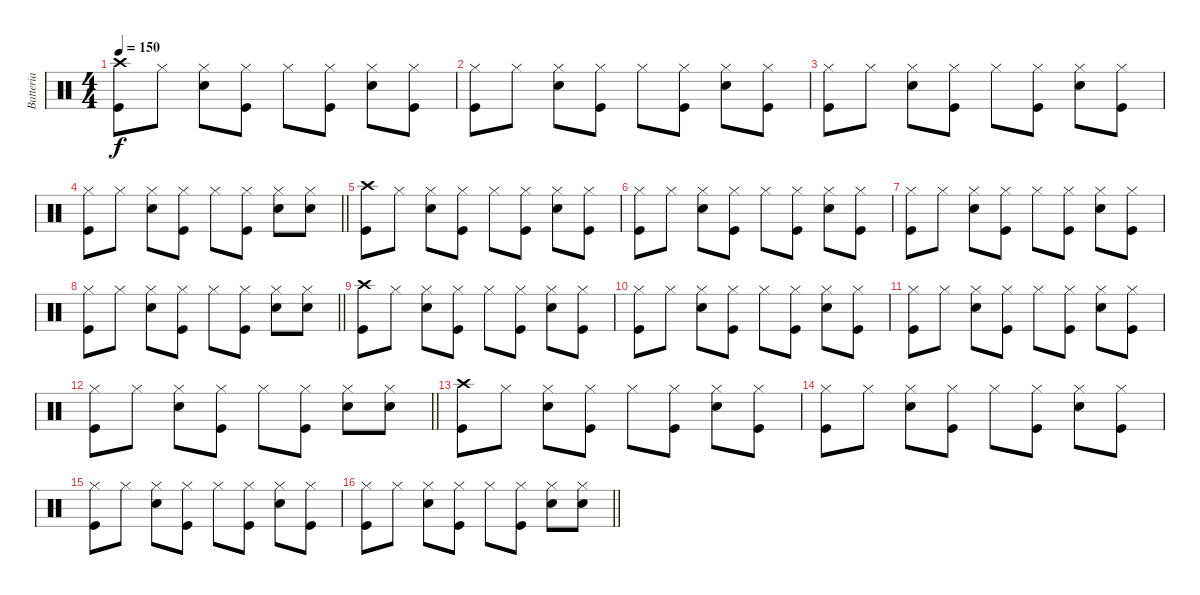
\track ("Batteria" "Batteria") {instrument percussion}
\staff {score}
\articulation defaults
\ts (4 4)
\tempo 150
\clef neutral
\ks c
("Kick (hit)" "Crash high (hit)").8{dy f} "Hi-Hat (closed)".8 ("Snare (hit) 2" "Hi-Hat (closed)").8 ("Kick (hit)" "Hi-Hat (closed)").8 "Hi-Hat (closed)".8 ("Kick (hit)" "Hi-Hat (closed)").8 ("Snare (hit) 2" "Hi-Hat (closed)").8 ("Kick (hit)" "Hi-Hat (closed)").8 |
("Kick (hit)" "Hi-Hat (closed)").8 "Hi-Hat (closed)".8 ("Snare (hit) 2" "Hi-Hat (closed)").8 ("Kick (hit)" "Hi-Hat (closed)").8 "Hi-Hat (closed)".8 ("Kick (hit)" "Hi-Hat (closed)").8 ("Snare (hit) 2" "Hi-Hat (closed)").8 ("Kick (hit)" "Hi-Hat (closed)").8 |
("Kick (hit)" "Hi-Hat (closed)").8 "Hi-Hat (closed)".8 ("Snare (hit) 2" "Hi-Hat (closed)").8 ("Kick (hit)" "Hi-Hat (closed)").8 "Hi-Hat (closed)".8 ("Kick (hit)" "Hi-Hat (closed)").8 ("Snare (hit) 2" "Hi-Hat (closed)").8 ("Kick (hit)" "Hi-Hat (closed)").8 |
\barLineRight lightlight
("Kick (hit)" "Hi-Hat (closed)").8 "Hi-Hat (closed)".8 ("Snare (hit) 2" "Hi-Hat (closed)").8 ("Kick (hit)" "Hi-Hat (closed)").8 "Hi-Hat (closed)".8 ("Kick (hit)" "Hi-Hat (closed)").8 ("Snare (hit) 2" "Hi-Hat (closed)").8 ("Hi-Hat (closed)" "Snare (hit) 2").8 |
("Kick (hit)" "Crash high (hit)").8 "Hi-Hat (closed)".8 ("Snare (hit) 2" "Hi-Hat (closed)").8 ("Kick (hit)" "Hi-Hat (closed)").8 "Hi-Hat (closed)".8 ("Kick (hit)" "Hi-Hat (closed)").8 ("Snare (hit) 2" "Hi-Hat (closed)").8 ("Kick (hit)" "Hi-Hat (closed)").8 |
("Kick (hit)" "Hi-Hat (closed)").8 "Hi-Hat (closed)".8 ("Snare (hit) 2" "Hi-Hat (closed)").8 ("Kick (hit)" "Hi-Hat (closed)").8 "Hi-Hat (closed)".8 ("Kick (hit)" "Hi-Hat (closed)").8 ("Snare (hit) 2" "Hi-Hat (closed)").8 ("Kick (hit)" "Hi-Hat (closed)").8 |
("Kick (hit)" "Hi-Hat (closed)").8 "Hi-Hat (closed)".8 ("Snare (hit) 2" "Hi-Hat (closed)").8 ("Kick (hit)" "Hi-Hat (closed)").8 "Hi-Hat (closed)".8 ("Kick (hit)" "Hi-Hat (closed)").8 ("Snare (hit) 2" "Hi-Hat (closed)").8 ("Kick (hit)" "Hi-Hat (closed)").8 |
\barLineRight lightlight
("Kick (hit)" "Hi-Hat (closed)").8 "Hi-Hat (closed)".8 ("Snare (hit) 2" "Hi-Hat (closed)").8 ("Kick (hit)" "Hi-Hat (closed)").8 "Hi-Hat (closed)".8 ("Kick (hit)" "Hi-Hat (closed)").8 ("Snare (hit) 2" "Hi-Hat (closed)").8 ("Hi-Hat (closed)" "Snare (hit) 2").8 |
("Kick (hit)" "Crash high (hit)").8 "Hi-Hat (closed)".8 ("Snare (hit) 2" "Hi-Hat (closed)").8 ("Kick (hit)" "Hi-Hat (closed)").8 "Hi-Hat (closed)".8 ("Kick (hit)" "Hi-Hat (closed)").8 ("Snare (hit) 2" "Hi-Hat (closed)").8 ("Kick (hit)" "Hi-Hat (closed)").8 |
("Kick (hit)" "Hi-Hat (closed)").8 "Hi-Hat (closed)".8 ("Snare (hit) 2" "Hi-Hat (closed)").8 ("Kick (hit)" "Hi-Hat (closed)").8 "Hi-Hat (closed)".8 ("Kick (hit)" "Hi-Hat (closed)").8 ("Snare (hit) 2" "Hi-Hat (closed)").8 ("Kick (hit)" "Hi-Hat (closed)").8 |
("Kick (hit)" "Hi-Hat (closed)").8 "Hi-Hat (closed)".8 ("Snare (hit) 2" "Hi-Hat (closed)").8 ("Kick (hit)" "Hi-Hat (closed)").8 "Hi-Hat (closed)".8 ("Kick (hit)" "Hi-Hat (closed)").8 ("Snare (hit) 2" "Hi-Hat (closed)").8 ("Kick (hit)" "Hi-Hat (closed)").8 |
\barLineRight lightlight
("Kick (hit)" "Hi-Hat (closed)").8 "Hi-Hat (closed)".8 ("Snare (hit) 2" "Hi-Hat (closed)").8 ("Kick (hit)" "Hi-Hat (closed)").8 "Hi-Hat (closed)".8 ("Kick (hit)" "Hi-Hat (closed)").8 ("Snare (hit) 2" "Hi-Hat (closed)").8 ("Hi-Hat (closed)" "Snare (hit) 2").8 |
("Kick (hit)" "Crash high (hit)").8 "Hi-Hat (closed)".8 ("Snare (hit) 2" "Hi-Hat (closed)").8 ("Kick (hit)" "Hi-Hat (closed)").8 "Hi-Hat (closed)".8 ("Kick (hit)" "Hi-Hat (closed)").8 ("Snare (hit) 2" "Hi-Hat (closed)").8 ("Kick (hit)" "Hi-Hat (closed)").8 |
("Kick (hit)" "Hi-Hat (closed)").8 "Hi-Hat (closed)".8 ("Snare (hit) 2" "Hi-Hat (closed)").8 ("Kick (hit)" "Hi-Hat (closed)").8 "Hi-Hat (closed)".8 ("Kick (hit)" "Hi-Hat (closed)").8 ("Snare (hit) 2" "Hi-Hat (closed)").8 ("Kick (hit)" "Hi-Hat (closed)").8 |
("Kick (hit)" "Hi-Hat (closed)").8 "Hi-Hat (closed)".8 ("Snare (hit) 2" "Hi-Hat (closed)").8 ("Kick (hit)" "Hi-Hat (closed)").8 "Hi-Hat (closed)".8 ("Kick (hit)" "Hi-Hat (closed)").8 ("Snare (hit) 2" "Hi-Hat (closed)").8 ("Kick (hit)" "Hi-Hat (closed)").8 |
\barLineRight lightlight
("Kick (hit)" "Hi-Hat (closed)").8 "Hi-Hat (closed)".8 ("Snare (hit) 2" "Hi-Hat (closed)").8 ("Kick (hit)" "Hi-Hat (closed)").8 "Hi-Hat (closed)".8 ("Kick (hit)" "Hi-Hat (closed)").8 ("Snare (hit) 2" "Hi-Hat (closed)").8 ("Hi-Hat (closed)" "Snare (hit) 2").8
